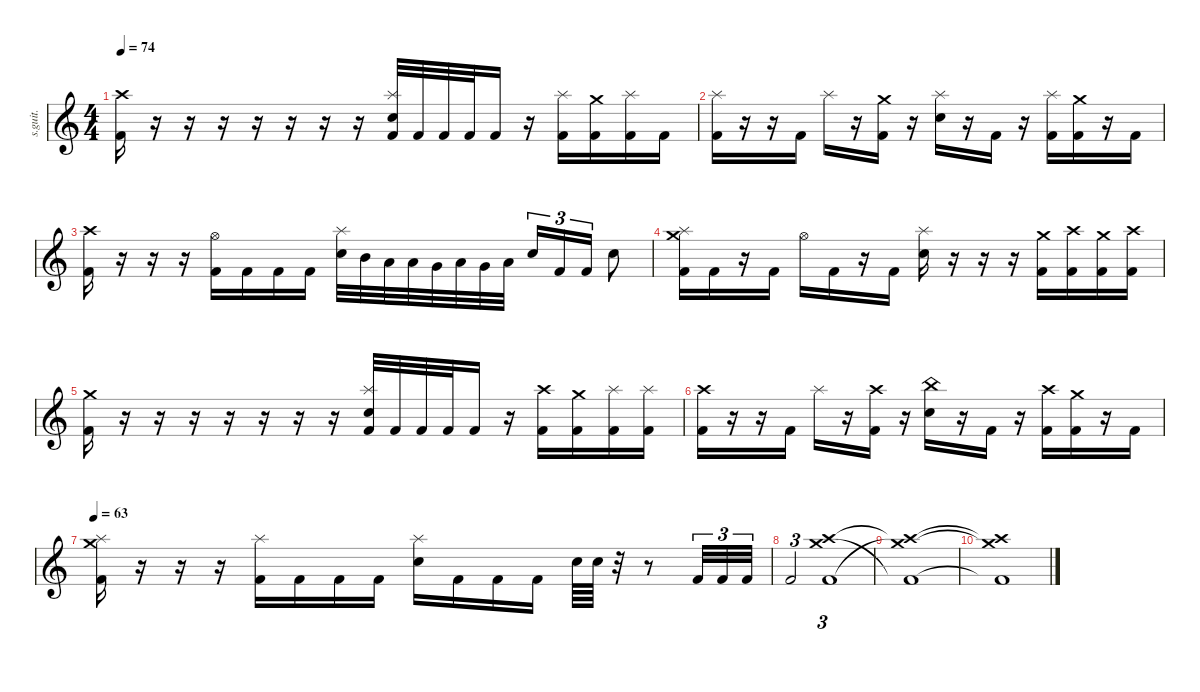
\defaultSystemsLayout 4
\hideDynamics
\bracketExtendMode nobrackets
\track ("Drumkit" "s.guit.") {instrument percussion}
\staff {score}
\articulation defaults
\ts (4 4)
\tempo 74
\clef g2
\ks c
("Crash high (hit)" "Kick (hit) 2").16{lyrics (0 "") lyrics (1 "") lyrics (2 "") lyrics (3 "") lyrics (4 "") dy f} r.16 r.16 r.16 r.16 r.16 r.16 r.16 ("Splash (hit)" "Electric Snare (hit)" "Kick (hit) 2").32{lyrics (0 "") lyrics (1 "") lyrics (2 "") lyrics (3 "") lyrics (4 "")} "Kick (hit) 2".32{lyrics (0 "") lyrics (1 "") lyrics (2 "") lyrics (3 "") lyrics (4 "")} "Kick (hit) 2".32{lyrics (0 "") lyrics (1 "") lyrics (2 "") lyrics (3 "") lyrics (4 "")} "Kick (hit) 2".32{lyrics (0 "") lyrics (1 "") lyrics (2 "") lyrics (3 "") lyrics (4 "")} "Kick (hit) 2".16{lyrics (0 "") lyrics (1 "") lyrics (2 "") lyrics (3 "") lyrics (4 "")} r.16 ("Splash (hit)" "Kick (hit) 2").16{lyrics (0 "") lyrics (1 "") lyrics (2 "") lyrics (3 "") lyrics (4 "")} ("Crash medium (hit)" "Kick (hit) 2").16{lyrics (0 "") lyrics (1 "") lyrics (2 "") lyrics (3 "") lyrics (4 "")} ("Splash (hit)" "Kick (hit) 2").16{lyrics (0 "") lyrics (1 "") lyrics (2 "") lyrics (3 "") lyrics (4 "")} "Kick (hit) 2".16{lyrics (0 "") lyrics (1 "") lyrics (2 "") lyrics (3 "") lyrics (4 "")} |
("Splash (hit)" "Kick (hit) 2").16{lyrics (0 "") lyrics (1 "") lyrics (2 "") lyrics (3 "") lyrics (4 "")} r.16 r.16 "Kick (hit) 2".16{lyrics (0 "") lyrics (1 "") lyrics (2 "") lyrics (3 "") lyrics (4 "")} "Splash (hit)".16{lyrics (0 "") lyrics (1 "") lyrics (2 "") lyrics (3 "") lyrics (4 "")} r.16 ("Crash medium (hit)" "Kick (hit) 2").16{lyrics (0 "") lyrics (1 "") lyrics (2 "") lyrics (3 "") lyrics (4 "")} r.16 ("Splash (hit)" "Electric Snare (hit)").16{lyrics (0 "") lyrics (1 "") lyrics (2 "") lyrics (3 "") lyrics (4 "")} r.16 "Kick (hit) 2".16{lyrics (0 "") lyrics (1 "") lyrics (2 "") lyrics (3 "") lyrics (4 "")} r.16 ("Splash (hit)" "Kick (hit) 2").16{lyrics (0 "") lyrics (1 "") lyrics (2 "") lyrics (3 "") lyrics (4 "")} ("Crash medium (hit)" "Kick (hit) 2").16{lyrics (0 "") lyrics (1 "") lyrics (2 "") lyrics (3 "") lyrics (4 "")} r.16 "Kick (hit) 2".16{lyrics (0 "") lyrics (1 "") lyrics (2 "") lyrics (3 "") lyrics (4 "")} |
("Crash high (hit)" "Kick (hit) 2").16{lyrics (0 "") lyrics (1 "") lyrics (2 "") lyrics (3 "") lyrics (4 "")} r.16 r.16 r.16 ("Hi-Hat (open)" "Kick (hit) 2").16{lyrics (0 "") lyrics (1 "") lyrics (2 "") lyrics (3 "") lyrics (4 "")} "Kick (hit) 2".16{lyrics (0 "") lyrics (1 "") lyrics (2 "") lyrics (3 "") lyrics (4 "")} "Kick (hit) 2".16{lyrics (0 "") lyrics (1 "") lyrics (2 "") lyrics (3 "") lyrics (4 "")} "Kick (hit) 2".16{lyrics (0 "") lyrics (1 "") lyrics (2 "") lyrics (3 "") lyrics (4 "")} ("Splash (hit)" "Electric Snare (hit)").32{lyrics (0 "") lyrics (1 "") lyrics (2 "") lyrics (3 "") lyrics (4 "")} "Mid Tom (hit)".32{lyrics (0 "") lyrics (1 "") lyrics (2 "") lyrics (3 "") lyrics (4 "")} "Low Floor Tom (hit)".32{lyrics (0 "") lyrics (1 "") lyrics (2 "") lyrics (3 "") lyrics (4 "")} "Low Tom (hit)".32{lyrics (0 "") lyrics (1 "") lyrics (2 "") lyrics (3 "") lyrics (4 "")} "Very Low Tom (hit)".32{lyrics (0 "") lyrics (1 "") lyrics (2 "") lyrics (3 "") lyrics (4 "")} "Low Tom (hit)".32{lyrics (0 "") lyrics (1 "") lyrics (2 "") lyrics (3 "") lyrics (4 "")} "Very Low Tom (hit)".32{lyrics (0 "") lyrics (1 "") lyrics (2 "") lyrics (3 "") lyrics (4 "")} "Low Floor Tom (hit)".32{lyrics (0 "") lyrics (1 "") lyrics (2 "") lyrics (3 "") lyrics (4 "")} "Electric Snare (hit)".16{tu (3 2) lyrics (0 "") lyrics (1 "") lyrics (2 "") lyrics (3 "") lyrics (4 "")} "Kick (hit) 2".16{tu (3 2) lyrics (0 "") lyrics (1 "") lyrics (2 "") lyrics (3 "") lyrics (4 "")} "Kick (hit) 2".16{tu (3 2) lyrics (0 "") lyrics (1 "") lyrics (2 "") lyrics (3 "") lyrics (4 "")} "Electric Snare (hit)".8{lyrics (0 "") lyrics (1 "") lyrics (2 "") lyrics (3 "") lyrics (4 "")} |
("Crash medium (hit)" "Splash (hit)" "Kick (hit) 2").16{lyrics (0 "") lyrics (1 "") lyrics (2 "") lyrics (3 "") lyrics (4 "")} "Kick (hit) 2".16{lyrics (0 "") lyrics (1 "") lyrics (2 "") lyrics (3 "") lyrics (4 "")} r.16 "Kick (hit) 2".16{lyrics (0 "") lyrics (1 "") lyrics (2 "") lyrics (3 "") lyrics (4 "")} "Hi-Hat (open)".16{lyrics (0 "") lyrics (1 "") lyrics (2 "") lyrics (3 "") lyrics (4 "")} "Kick (hit) 2".16{lyrics (0 "") lyrics (1 "") lyrics (2 "") lyrics (3 "") lyrics (4 "")} r.16 "Kick (hit) 2".16{lyrics (0 "") lyrics (1 "") lyrics (2 "") lyrics (3 "") lyrics (4 "")} ("Splash (hit)" "Electric Snare (hit)").16{lyrics (0 "") lyrics (1 "") lyrics (2 "") lyrics (3 "") lyrics (4 "")} r.16 r.16 r.16 ("Crash medium (hit)" "Kick (hit) 2").16{lyrics (0 "") lyrics (1 "") lyrics (2 "") lyrics (3 "") lyrics (4 "")} ("Crash high (hit)" "Kick (hit) 2").16{lyrics (0 "") lyrics (1 "") lyrics (2 "") lyrics (3 "") lyrics (4 "")} ("Crash medium (hit)" "Kick (hit) 2").16{lyrics (0 "") lyrics (1 "") lyrics (2 "") lyrics (3 "") lyrics (4 "")} ("Crash high (hit)" "Kick (hit) 2").16{lyrics (0 "") lyrics (1 "") lyrics (2 "") lyrics (3 "") lyrics (4 "")} |
("Crash medium (hit)" "Kick (hit) 2").16{lyrics (0 "") lyrics (1 "") lyrics (2 "") lyrics (3 "") lyrics (4 "")} r.16 r.16 r.16 r.16 r.16 r.16 r.16 ("Splash (hit)" "Electric Snare (hit)" "Kick (hit) 2").32{lyrics (0 "") lyrics (1 "") lyrics (2 "") lyrics (3 "") lyrics (4 "")} "Kick (hit) 2".32{lyrics (0 "") lyrics (1 "") lyrics (2 "") lyrics (3 "") lyrics (4 "")} "Kick (hit) 2".32{lyrics (0 "") lyrics (1 "") lyrics (2 "") lyrics (3 "") lyrics (4 "")} "Kick (hit) 2".32{lyrics (0 "") lyrics (1 "") lyrics (2 "") lyrics (3 "") lyrics (4 "")} "Kick (hit) 2".16{lyrics (0 "") lyrics (1 "") lyrics (2 "") lyrics (3 "") lyrics (4 "")} r.16 ("Crash high (hit)" "Kick (hit) 2").16{lyrics (0 "") lyrics (1 "") lyrics (2 "") lyrics (3 "") lyrics (4 "")} ("Crash medium (hit)" "Kick (hit) 2").16{lyrics (0 "") lyrics (1 "") lyrics (2 "") lyrics (3 "") lyrics (4 "")} ("Splash (hit)" "Kick (hit) 2").16{lyrics (0 "") lyrics (1 "") lyrics (2 "") lyrics (3 "") lyrics (4 "")} ("Splash (hit)" "Kick (hit) 2").16{lyrics (0 "") lyrics (1 "") lyrics (2 "") lyrics (3 "") lyrics (4 "")} |
("Crash high (hit)" "Kick (hit) 2").16{lyrics (0 "") lyrics (1 "") lyrics (2 "") lyrics (3 "") lyrics (4 "")} r.16 r.16 "Kick (hit) 2".16{lyrics (0 "") lyrics (1 "") lyrics (2 "") lyrics (3 "") lyrics (4 "")} "Splash (hit)".16{lyrics (0 "") lyrics (1 "") lyrics (2 "") lyrics (3 "") lyrics (4 "")} r.16 ("Crash high (hit)" "Kick (hit) 2").16{lyrics (0 "") lyrics (1 "") lyrics (2 "") lyrics (3 "") lyrics (4 "")} r.16 ("China (hit)" "Electric Snare (hit)").16{lyrics (0 "") lyrics (1 "") lyrics (2 "") lyrics (3 "") lyrics (4 "")} r.16 "Kick (hit) 2".16{lyrics (0 "") lyrics (1 "") lyrics (2 "") lyrics (3 "") lyrics (4 "")} r.16 ("Crash high (hit)" "Kick (hit) 2").16{lyrics (0 "") lyrics (1 "") lyrics (2 "") lyrics (3 "") lyrics (4 "")} ("Crash medium (hit)" "Kick (hit) 2").16{lyrics (0 "") lyrics (1 "") lyrics (2 "") lyrics (3 "") lyrics (4 "")} r.16 "Kick (hit) 2".16{lyrics (0 "") lyrics (1 "") lyrics (2 "") lyrics (3 "") lyrics (4 "")} |
\tempo 63
("Crash medium (hit)" "Splash (hit)" "Kick (hit) 2").16{lyrics (0 "") lyrics (1 "") lyrics (2 "") lyrics (3 "") lyrics (4 "")} r.16 r.16 r.16 ("Splash (hit)" "Kick (hit) 2").16{lyrics (0 "") lyrics (1 "") lyrics (2 "") lyrics (3 "") lyrics (4 "")} "Kick (hit) 2".16{lyrics (0 "") lyrics (1 "") lyrics (2 "") lyrics (3 "") lyrics (4 "")} "Kick (hit) 2".16{lyrics (0 "") lyrics (1 "") lyrics (2 "") lyrics (3 "") lyrics (4 "")} "Kick (hit) 2".16{lyrics (0 "") lyrics (1 "") lyrics (2 "") lyrics (3 "") lyrics (4 "")} ("Splash (hit)" "Electric Snare (hit)").16{lyrics (0 "") lyrics (1 "") lyrics (2 "") lyrics (3 "") lyrics (4 "")} "Kick (hit) 2".16{lyrics (0 "") lyrics (1 "") lyrics (2 "") lyrics (3 "") lyrics (4 "")} "Kick (hit) 2".16{lyrics (0 "") lyrics (1 "") lyrics (2 "") lyrics (3 "") lyrics (4 "")} "Kick (hit) 2".16{lyrics (0 "") lyrics (1 "") lyrics (2 "") lyrics (3 "") lyrics (4 "")} "Electric Snare (hit)".64{lyrics (0 "") lyrics (1 "") lyrics (2 "") lyrics (3 "") lyrics (4 "")} "Electric Snare (hit)".64{lyrics (0 "") lyrics (1 "") lyrics (2 "") lyrics (3 "") lyrics (4 "")} r.32 r.8 "Kick (hit) 2".32{tu (3 2) lyrics (0 "") lyrics (1 "") lyrics (2 "") lyrics (3 "") lyrics (4 "")} "Kick (hit) 2".32{tu (3 2) lyrics (0 "") lyrics (1 "") lyrics (2 "") lyrics (3 "") lyrics (4 "")} "Kick (hit) 2".32{tu (3 2) lyrics (0 "") lyrics (1 "") lyrics (2 "") lyrics (3 "") lyrics (4 "")} |
"Kick (hit) 2".2{tu (3 2) lyrics (0 "") lyrics (1 "") lyrics (2 "") lyrics (3 "") lyrics (4 "")} ("Crash medium (hit)" "Crash high (hit)" "Kick (hit) 2").1{tu (3 2) lyrics (0 "") lyrics (1 "") lyrics (2 "") lyrics (3 "") lyrics (4 "")} |
("Kick (hit) 2"{t} "Crash high (hit)"{t} "Crash medium (hit)"{t}).1{lyrics (0 "") lyrics (1 "") lyrics (2 "") lyrics (3 "") lyrics (4 "")} |
("Kick (hit) 2"{t} "Crash high (hit)"{t} "Crash medium (hit)"{t}).1{lyrics (0 "") lyrics (1 "") lyrics (2 "") lyrics (3 "") lyrics (4 "")}
